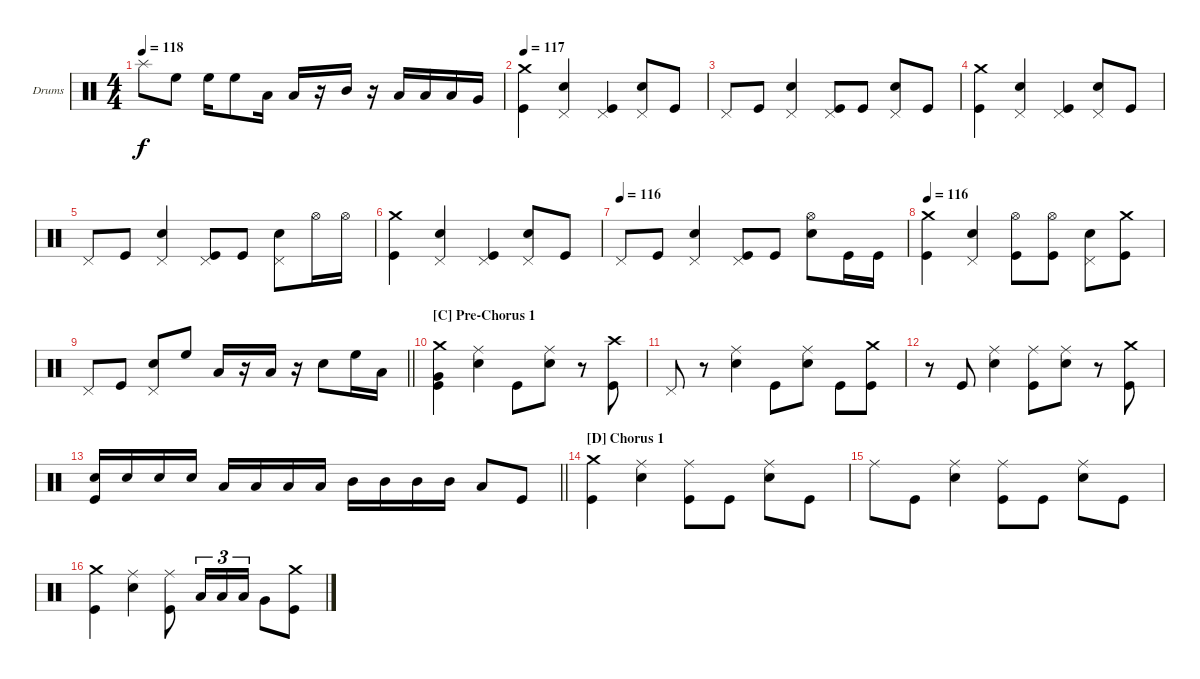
\bracketExtendMode groupsimilarinstruments
\firstSystemTrackNameOrientation horizontal
\otherSystemsTrackNameOrientation horizontal
\track ("Vinny Appice" "Drums") {instrument percussion}
\staff {score}
\articulation defaults
\ts (4 4)
\tempo 118
\clef neutral
\ks c "Splash (hit)".8{dy f} "High Floor Tom (hit)".8 "High Floor Tom (hit)".16 "High Floor Tom (hit)".8 "Low Tom (hit)".16 "Low Tom (hit)".16
r.16 "Mid Tom (hit)".16 r.16 "Low Tom (hit)".16 "Low Tom (hit)".16 "Low Tom (hit)".16 "Very Low Tom (hit)".16 |
\tempo 117
("Kick (hit)" "Crash medium (hit)").4 ("Pedal Hi-Hat (hit)" "Snare (hit) 2").4 ("Pedal Hi-Hat (hit)" "Kick (hit)").4 ("Pedal Hi-Hat (hit)" "Snare (hit) 2").8 "Kick (hit)".8 |
"Pedal Hi-Hat (hit)".8 "Kick (hit)".8 ("Pedal Hi-Hat (hit)" "Snare (hit) 2").4 ("Pedal Hi-Hat (hit)" "Kick (hit)").8 "Kick (hit)".8 ("Pedal Hi-Hat (hit)" "Snare (hit) 2").8 "Kick (hit)".8 |
("Kick (hit)" "Crash medium (hit)").4 ("Pedal Hi-Hat (hit)" "Snare (hit) 2").4 ("Pedal Hi-Hat (hit)" "Kick (hit)").4 ("Pedal Hi-Hat (hit)" "Snare (hit) 2").8 "Kick (hit)".8 |
"Pedal Hi-Hat (hit)".8 "Kick (hit)".8 ("Pedal Hi-Hat (hit)" "Snare (hit) 2").4 ("Pedal Hi-Hat (hit)" "Kick (hit)").8 "Kick (hit)".8 ("Pedal Hi-Hat (hit)" "Snare (hit) 2").8 "Hi-Hat (open)".16 "Hi-Hat (open)".16 |
("Kick (hit)" "Crash medium (hit)").4 ("Pedal Hi-Hat (hit)" "Snare (hit) 2").4 ("Pedal Hi-Hat (hit)" "Kick (hit)").4 ("Pedal Hi-Hat (hit)" "Snare (hit) 2").8 "Kick (hit)".8 |
\tempo (116)
"Pedal Hi-Hat (hit)".8 "Kick (hit)".8 ("Pedal Hi-Hat (hit)" "Snare (hit) 2").4 ("Pedal Hi-Hat (hit)" "Kick (hit)").8 "Kick (hit)".8 ("Hi-Hat (open)" "Snare (hit) 2").8 "Kick (hit)".16 "Kick (hit)".16 |
\tempo 116
("Kick (hit)" "Crash medium (hit)").4 ("Pedal Hi-Hat (hit)" "Snare (hit) 2").4 ("Hi-Hat (open)" "Kick (hit)").8 ("Hi-Hat (open)" "Kick (hit)").8 ("Pedal Hi-Hat (hit)" "Snare (hit) 2").8 ("Kick (hit)" "Crash medium (hit)").8 |
\barLineRight lightlight "Pedal Hi-Hat (hit)".8 "Kick (hit)".8
("Pedal Hi-Hat (hit)" "Snare (hit) 2").8 "High Floor Tom (hit)".8 "Low Tom (hit)".16 r.16 "Low Tom (hit)".16 r.16 "Snare (hit) 2".8 "High Floor Tom (hit)".16 "Low Tom (hit)".16 |
\section ("C" "Pre-Chorus 1")
("Very Low Tom (hit)" "Kick (hit)" "Crash medium (hit)").4 ("Ride (middle)" "Snare (hit) 2").4 "Kick (hit)".8 ("Ride (middle)" "Snare (hit) 2").8 r.8 ("Crash high (hit)" "Kick (hit)").8 |
"Pedal Hi-Hat (hit)".8 r.8 ("Ride (middle)" "Snare (hit) 2").4 "Kick (hit)".8 ("Ride (middle)" "Snare (hit) 2").8 "Kick (hit)".8 ("Crash medium (hit)" "Kick (hit)").8 |
r.8 "Kick (hit)".8 ("Ride (middle)" "Snare (hit) 2").4 ("Ride (middle)" "Kick (hit)").8 ("Ride (middle)" "Snare (hit) 2").8 r.8 ("Kick (hit)" "Crash medium (hit)").8 |
\barLineRight lightlight
("Kick (hit)" "Snare (hit) 2").16 "Snare (hit) 2".16 "Snare (hit) 2".16 "Snare (hit) 2".16 "Low Tom (hit)".16 "Low Tom (hit)".16 "Low Tom (hit)".16 "Low Tom (hit)".16 "Mid Tom (hit)".16 "Mid Tom (hit)".16 "Mid Tom (hit)".16 "Mid Tom (hit)".16 "Low Tom (hit)".8 "Kick (hit)".8 |
\section ("D" "Chorus 1")
("Kick (hit)" "Crash medium (hit)").4 ("Ride (middle)" "Snare (hit) 2").4 ("Ride (middle)" "Kick (hit)").8 "Kick (hit)".8 ("Ride (middle)" "Snare (hit) 2").8 "Kick (hit)".8 |
"Ride (middle)".8 "Kick (hit)".8 ("Ride (middle)" "Snare (hit) 2").4 ("Ride (middle)" "Kick (hit)").8 "Kick (hit)".8 ("Ride (middle)" "Snare (hit) 2").8 "Kick (hit)".8 |
("Kick (hit)" "Crash medium (hit)").4 ("Ride (middle)" "Snare (hit) 2").4 ("Ride (middle)" "Kick (hit)").8 "Low Tom (hit)".16{tu (3 2)} "Low Tom (hit)".16{tu (3 2)} "Low Tom (hit)".16{tu (3 2)} "Very Low Tom (hit)".8 ("Kick (hit)" "Crash medium (hit)").8
